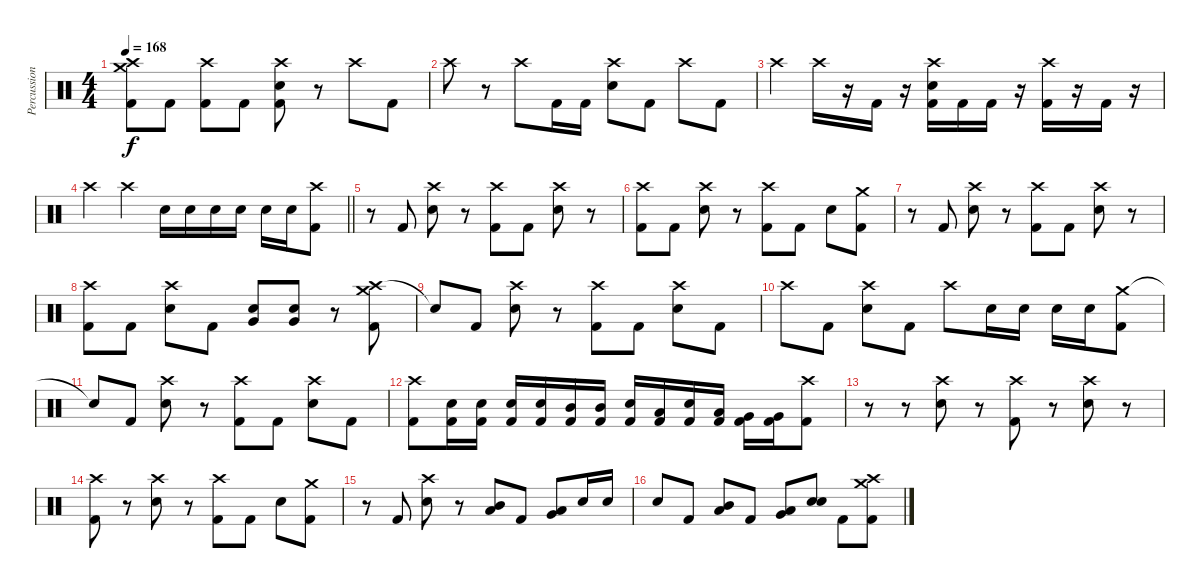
\track ("Percussion" "Percussion") {instrument percussion}
\staff {score}
\articulation defaults
\ts (4 4)
\tempo 168
\clef neutral
\ks c
("Crash high (hit)" "Crash medium (hit)" "Kick (hit) 2").8{dy f} "Kick (hit) 2".8 ("Crash high (hit)" "Kick (hit) 2").8 "Kick (hit) 2".8 ("Crash high (hit)" "Electric Snare (hit)" "Kick (hit) 2").8 r.8 "Crash high (hit)".8 "Kick (hit) 2".8 |
"Crash high (hit)".8 r.8 "Crash high (hit)".8 "Kick (hit) 2".16 "Kick (hit) 2".16 ("Crash high (hit)" "Electric Snare (hit)").8 "Kick (hit) 2".8 "Crash high (hit)".8 "Kick (hit) 2".8 |
"Crash high (hit)".4 "Crash high (hit)".16 r.16 "Kick (hit) 2".16 r.16 ("Crash high (hit)" "Electric Snare (hit)" "Kick (hit) 2").16 "Kick (hit) 2".16 "Kick (hit) 2".16 r.16 ("Crash high (hit)" "Kick (hit) 2").16 r.16 "Kick (hit) 2".16 r.16 |
\barLineRight lightlight "Crash high (hit)".4 "Crash high (hit)".4 "Electric Snare (hit)".16 "Electric Snare (hit)".16 "Electric Snare (hit)".16 "Electric Snare (hit)".16 "Electric Snare (hit)".16 "Electric Snare (hit)".16
("Crash high (hit)" "Kick (hit) 2").8 |
\section ("" "")
r.8 "Kick (hit) 2".8 ("Crash high (hit)" "Electric Snare (hit)").8 r.8 ("Crash high (hit)" "Kick (hit) 2").8 "Kick (hit) 2".8 ("Crash high (hit)" "Electric Snare (hit)").8 r.8 |
("Crash high (hit)" "Kick (hit) 2").8 "Kick (hit) 2".8 ("Crash high (hit)" "Electric Snare (hit)").8 r.8 ("Crash high (hit)" "Kick (hit) 2").8 "Kick (hit) 2".8 "Electric Snare (hit)".8 ("Crash medium (hit)" "Kick (hit) 2").8 |
r.8 "Kick (hit) 2".8 ("Crash high (hit)" "Electric Snare (hit)").8 r.8 ("Crash high (hit)" "Kick (hit) 2").8 "Kick (hit) 2".8 ("Crash high (hit)" "Electric Snare (hit)").8 r.8 |
("Crash high (hit)" "Kick (hit) 2").8 "Kick (hit) 2".8 ("Crash high (hit)" "Electric Snare (hit)").8 "Kick (hit) 2".8 ("Very Low Tom (hit)" "Electric Snare (hit)").8 ("Very Low Tom (hit)" "Electric Snare (hit)").8 r.8 ("Crash high (hit)" "Crash medium (hit)" "Kick (hit) 2").8 |
"Snare (hit)"{t}.8 "Kick (hit) 2".8 ("Crash high (hit)" "Electric Snare (hit)").8 r.8 ("Crash high (hit)" "Kick (hit) 2").8 "Kick (hit) 2".8 ("Crash high (hit)" "Electric Snare (hit)").8 "Kick (hit) 2".8 |
"Crash high (hit)".8 "Kick (hit) 2".8 ("Crash high (hit)" "Electric Snare (hit)").8 "Kick (hit) 2".8 "Crash high (hit)".8 "Electric Snare (hit)".16 "Electric Snare (hit)".16 "Electric Snare (hit)".16 "Electric Snare (hit)".16 ("Crash medium (hit)" "Kick (hit) 2").8 |
"Snare (hit)"{t}.8 "Kick (hit) 2".8 ("Crash high (hit)" "Electric Snare (hit)").8 r.8 ("Crash high (hit)" "Kick (hit) 2").8 "Kick (hit) 2".8 ("Crash high (hit)" "Electric Snare (hit)").8 "Kick (hit) 2".8 |
("Crash high (hit)" "Kick (hit) 2").8 ("Electric Snare (hit)" "Kick (hit) 2").16 ("Electric Snare (hit)" "Kick (hit) 2").16 ("Electric Snare (hit)" "Kick (hit) 2").16 ("Electric Snare (hit)" "Kick (hit) 2").16 ("Mid Tom (hit)" "Kick (hit) 2").16 ("Mid Tom (hit)" "Kick (hit) 2").16 ("Electric Snare (hit)" "Kick (hit) 2").16 ("Low Tom (hit)" "Kick (hit) 2").16 ("Electric Snare (hit)" "Kick (hit) 2").16 ("Low Tom (hit)" "Kick (hit) 2").16 ("Very Low Tom (hit)" "Kick (hit) 2").16 ("Very Low Tom (hit)" "Kick (hit) 2").16 ("Crash high (hit)" "Kick (hit) 2").8 |
r.8 r.8 ("Crash high (hit)" "Electric Snare (hit)").8 r.8 ("Crash high (hit)" "Kick (hit) 2").8 r.8 ("Crash high (hit)" "Electric Snare (hit)").8 r.8 |
("Crash high (hit)" "Kick (hit) 2").8 r.8 ("Crash high (hit)" "Electric Snare (hit)").8 r.8 ("Crash high (hit)" "Kick (hit) 2").8 "Kick (hit) 2".8 "Electric Snare (hit)".8 ("Crash medium (hit)" "Kick (hit) 2").8 |
r.8 "Kick (hit) 2".8 ("Crash high (hit)" "Electric Snare (hit)").8 r.8 ("Mid Tom (hit)" "Low Tom (hit)").8 "Kick (hit) 2".8 ("Low Tom (hit)" "Very Low Tom (hit)").8 "Electric Snare (hit)".16 "Electric Snare (hit)".16 |
"Electric Snare (hit)".8 "Kick (hit) 2".8 ("Mid Tom (hit)" "Low Tom (hit)").8 "Kick (hit) 2".8 ("Low Tom (hit)" "Very Low Tom (hit)").8 ("Electric Snare (hit)" "Electric Snare (hit)").8 "Kick (hit) 2".8 ("Crash high (hit)" "Crash medium (hit)" "Kick (hit) 2").8
